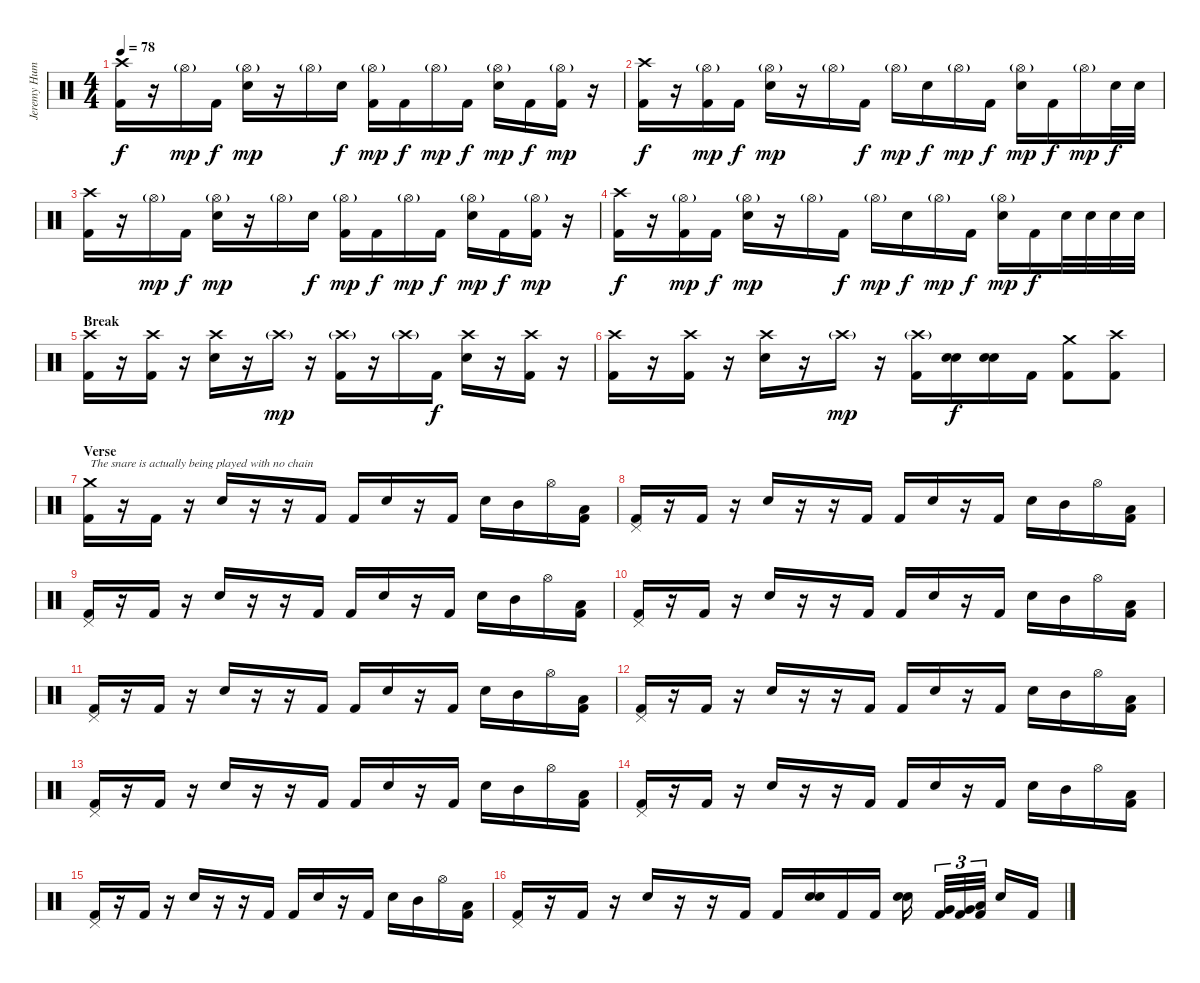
\track ("Jeremy Hummel" "Jeremy Hum") {instrument percussion}
\staff {score}
\articulation defaults
\ts (4 4)
\tempo 78
\clef neutral
\ks c
("Crash high (hit)" "Kick (hit) 2").16{dy f} r.16 "Hi-Hat (open)"{g}.16{dy mp} "Kick (hit) 2".16{dy f} ("Hi-Hat (open)"{g} "Snare (hit) 2").16{dy mp} r.16 "Hi-Hat (open)"{g}.16 "Snare (hit) 2".16{dy f} ("Hi-Hat (open)"{g} "Kick (hit) 2").16{dy mp} "Kick (hit) 2".16{dy f} "Hi-Hat (open)"{g}.16{dy mp} "Kick (hit) 2".16{dy f} ("Hi-Hat (open)"{g} "Snare (hit) 2").16{dy mp} "Kick (hit) 2".16{dy f} ("Hi-Hat (open)"{g} "Kick (hit) 2").16{dy mp} r.16 |
("Crash high (hit)" "Kick (hit) 2").16{dy f} r.16 ("Hi-Hat (open)"{g} "Kick (hit) 2").16{dy mp} "Kick (hit) 2".16{dy f} ("Hi-Hat (open)"{g} "Snare (hit) 2").16{dy mp} r.16 "Hi-Hat (open)"{g}.16 "Kick (hit) 2".16{dy f} "Hi-Hat (open)"{g}.16{dy mp} "Snare (hit) 2".16{dy f} "Hi-Hat (open)"{g}.16{dy mp} "Kick (hit) 2".16{dy f} ("Hi-Hat (open)"{g} "Snare (hit) 2").16{dy mp} "Kick (hit) 2".16{dy f} "Hi-Hat (open)"{g}.16{dy mp} "Snare (hit) 2".32{dy f} "Snare (hit) 2".32 |
("Crash high (hit)" "Kick (hit) 2").16 r.16 "Hi-Hat (open)"{g}.16{dy mp} "Kick (hit) 2".16{dy f} ("Hi-Hat (open)"{g} "Snare (hit) 2").16{dy mp} r.16 "Hi-Hat (open)"{g}.16 "Snare (hit) 2".16{dy f} ("Hi-Hat (open)"{g} "Kick (hit) 2").16{dy mp} "Kick (hit) 2".16{dy f} "Hi-Hat (open)"{g}.16{dy mp} "Kick (hit) 2".16{dy f} ("Hi-Hat (open)"{g} "Snare (hit) 2").16{dy mp} "Kick (hit) 2".16{dy f} ("Hi-Hat (open)"{g} "Kick (hit) 2").16{dy mp} r.16 |
("Crash high (hit)" "Kick (hit) 2").16{dy f} r.16 ("Hi-Hat (open)"{g} "Kick (hit) 2").16{dy mp} "Kick (hit) 2".16{dy f} ("Hi-Hat (open)"{g} "Snare (hit) 2").16{dy mp} r.16 "Hi-Hat (open)"{g}.16 "Kick (hit) 2".16{dy f} "Hi-Hat (open)"{g}.16{dy mp} "Snare (hit) 2".16{dy f} "Hi-Hat (open)"{g}.16{dy mp} "Kick (hit) 2".16{dy f} ("Hi-Hat (open)"{g} "Snare (hit) 2").16{dy mp} "Kick (hit) 2".16{dy f} "Snare (hit) 2".32 "Snare (hit) 2".32 "Snare (hit) 2".32 "Snare (hit) 2".32 |
\section ("" "Break")
("Crash high (hit)" "Kick (hit) 2").16 r.16 ("Crash high (hit)" "Kick (hit) 2").16 r.16 ("Crash high (hit)" "Snare (hit) 2").16 r.16 "Crash high (hit)"{g}.16{dy mp} r.16 ("Crash high (hit)"{g} "Kick (hit) 2").16 r.16 "Crash high (hit)"{g}.16 "Kick (hit) 2".16{dy f} ("Crash high (hit)" "Snare (hit) 2").16 r.16 ("Crash high (hit)" "Kick (hit) 2").16 r.16 |
("Crash high (hit)" "Kick (hit) 2").16 r.16 ("Crash high (hit)" "Kick (hit) 2").16 r.16 ("Crash high (hit)" "Snare (hit) 2").16 r.16 "Crash high (hit)"{g}.16{dy mp} r.16 ("Crash high (hit)"{g} "Kick (hit) 2").16 ("Snare (hit) 2" "Electric Snare (hit)").16{dy f} ("Snare (hit) 2" "Electric Snare (hit)").16 "Kick (hit) 2".16 ("Crash medium (hit)" "Kick (hit) 2").8 ("Crash high (hit)" "Kick (hit) 2").8 |
\section ("" "Verse")
("Crash medium (hit)" "Kick (hit) 2").16{txt "The snare is actually being played with no chain "} r.16 "Kick (hit) 2".16 r.16 "Snare (hit) 2".16 r.16 r.16 "Kick (hit) 2".16 "Kick (hit) 2".16 "Snare (hit) 2".16 r.16 "Kick (hit) 2".16 "Snare (hit) 2".16 "Mid Tom (hit)".16 "Hi-Hat (open)".16 ("Low Tom (hit)" "Kick (hit) 2").16 |
("Pedal Hi-Hat (hit)" "Kick (hit) 2").16 r.16 "Kick (hit) 2".16 r.16 "Snare (hit) 2".16 r.16 r.16 "Kick (hit) 2".16 "Kick (hit) 2".16 "Snare (hit) 2".16 r.16 "Kick (hit) 2".16 "Snare (hit) 2".16 "Mid Tom (hit)".16 "Hi-Hat (open)".16 ("Low Tom (hit)" "Kick (hit) 2").16 |
("Pedal Hi-Hat (hit)" "Kick (hit) 2").16 r.16 "Kick (hit) 2".16 r.16 "Snare (hit) 2".16 r.16 r.16 "Kick (hit) 2".16 "Kick (hit) 2".16 "Snare (hit) 2".16 r.16 "Kick (hit) 2".16 "Snare (hit) 2".16 "Mid Tom (hit)".16 "Hi-Hat (open)".16 ("Low Tom (hit)" "Kick (hit) 2").16 |
("Pedal Hi-Hat (hit)" "Kick (hit) 2").16 r.16 "Kick (hit) 2".16 r.16 "Snare (hit) 2".16 r.16 r.16 "Kick (hit) 2".16 "Kick (hit) 2".16 "Snare (hit) 2".16 r.16 "Kick (hit) 2".16 "Snare (hit) 2".16 "Mid Tom (hit)".16 "Hi-Hat (open)".16 ("Low Tom (hit)" "Kick (hit) 2").16 |
("Pedal Hi-Hat (hit)" "Kick (hit) 2").16 r.16 "Kick (hit) 2".16 r.16 "Snare (hit) 2".16 r.16 r.16 "Kick (hit) 2".16 "Kick (hit) 2".16 "Snare (hit) 2".16 r.16 "Kick (hit) 2".16 "Snare (hit) 2".16 "Mid Tom (hit)".16 "Hi-Hat (open)".16 ("Low Tom (hit)" "Kick (hit) 2").16 |
("Pedal Hi-Hat (hit)" "Kick (hit) 2").16 r.16 "Kick (hit) 2".16 r.16 "Snare (hit) 2".16 r.16 r.16 "Kick (hit) 2".16 "Kick (hit) 2".16 "Snare (hit) 2".16 r.16 "Kick (hit) 2".16 "Snare (hit) 2".16 "Mid Tom (hit)".16 "Hi-Hat (open)".16 ("Low Tom (hit)" "Kick (hit) 2").16 |
("Pedal Hi-Hat (hit)" "Kick (hit) 2").16 r.16 "Kick (hit) 2".16 r.16 "Snare (hit) 2".16 r.16 r.16 "Kick (hit) 2".16 "Kick (hit) 2".16 "Snare (hit) 2".16 r.16 "Kick (hit) 2".16 "Snare (hit) 2".16 "Mid Tom (hit)".16 "Hi-Hat (open)".16 ("Low Tom (hit)" "Kick (hit) 2").16 |
("Pedal Hi-Hat (hit)" "Kick (hit) 2").16 r.16 "Kick (hit) 2".16 r.16 "Snare (hit) 2".16 r.16 r.16 "Kick (hit) 2".16 "Kick (hit) 2".16 "Snare (hit) 2".16 r.16 "Kick (hit) 2".16 "Snare (hit) 2".16 "Mid Tom (hit)".16 "Hi-Hat (open)".16 ("Low Tom (hit)" "Kick (hit) 2").16 |
("Pedal Hi-Hat (hit)" "Kick (hit) 2").16 r.16 "Kick (hit) 2".16 r.16 "Snare (hit) 2".16 r.16 r.16 "Kick (hit) 2".16 "Kick (hit) 2".16 "Snare (hit) 2".16 r.16 "Kick (hit) 2".16 "Snare (hit) 2".16 "Mid Tom (hit)".16 "Hi-Hat (open)".16 ("Low Tom (hit)" "Kick (hit) 2").16 |
("Pedal Hi-Hat (hit)" "Kick (hit) 2").16 r.16 "Kick (hit) 2".16 r.16 "Snare (hit) 2".16 r.16 r.16 "Kick (hit) 2".16 "Kick (hit) 2".16 ("Snare (hit) 2" "Snare (hit) 2").16 "Kick (hit) 2".16 "Kick (hit) 2".16 ("Snare (hit) 2" "Snare (hit) 2").16 ("Very Low Tom (hit)" "Kick (hit) 2").32{tu (3 2)} ("Very Low Tom (hit)" "Kick (hit) 2").32{tu (3 2)} ("Low Tom (hit)" "Kick (hit) 2").32{tu (3 2)} "Snare (hit) 2".16 "Kick (hit) 2".16
